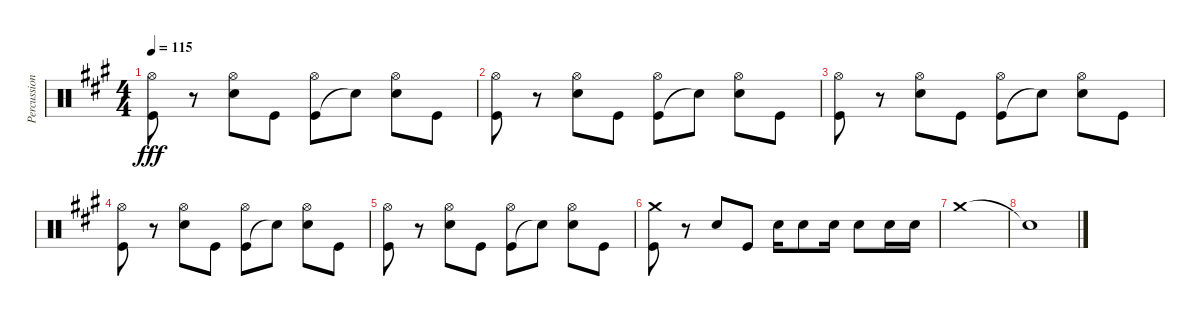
\track ("Percussion" "Percussion") {instrument percussion}
\staff {score}
\articulation defaults
\ts (4 4)
\tempo 115
\clef neutral
\ks a
("Kick (hit)" "Hi-Hat (open)").8{dy fff} r.8 ("Electric Snare (hit)" "Hi-Hat (open)").8 "Kick (hit)".8 ("Kick (hit)" "Hi-Hat (open)").8 "Snare (hit)"{t}.8 ("Electric Snare (hit)" "Hi-Hat (open)").8 "Kick (hit)".8 |
("Kick (hit)" "Hi-Hat (open)").8 r.8 ("Electric Snare (hit)" "Hi-Hat (open)").8 "Kick (hit)".8 ("Kick (hit)" "Hi-Hat (open)").8 "Snare (hit)"{t}.8 ("Electric Snare (hit)" "Hi-Hat (open)").8 "Kick (hit)".8 |
("Kick (hit)" "Hi-Hat (open)").8 r.8 ("Electric Snare (hit)" "Hi-Hat (open)").8 "Kick (hit)".8 ("Kick (hit)" "Hi-Hat (open)").8 "Snare (hit)"{t}.8 ("Electric Snare (hit)" "Hi-Hat (open)").8 "Kick (hit)".8 |
("Kick (hit)" "Hi-Hat (open)").8 r.8 ("Electric Snare (hit)" "Hi-Hat (open)").8 "Kick (hit)".8 ("Kick (hit)" "Hi-Hat (open)").8 "Snare (hit)"{t}.8 ("Electric Snare (hit)" "Hi-Hat (open)").8 "Kick (hit)".8 |
("Kick (hit)" "Hi-Hat (open)").8 r.8 ("Electric Snare (hit)" "Hi-Hat (open)").8 "Kick (hit)".8 ("Kick (hit)" "Hi-Hat (open)").8 "Snare (hit)"{t}.8 ("Electric Snare (hit)" "Hi-Hat (open)").8 "Kick (hit)".8 |
("Crash medium (hit)" "Kick (hit)").8 r.8 "Electric Snare (hit)".8 "Kick (hit)".8 "Electric Snare (hit)".16 "Electric Snare (hit)".8 "Electric Snare (hit)".16 "Electric Snare (hit)".8 "Electric Snare (hit)".16 "Electric Snare (hit)".16 |
"Crash medium (hit)".1 |
"Snare (hit)"{t}.1
